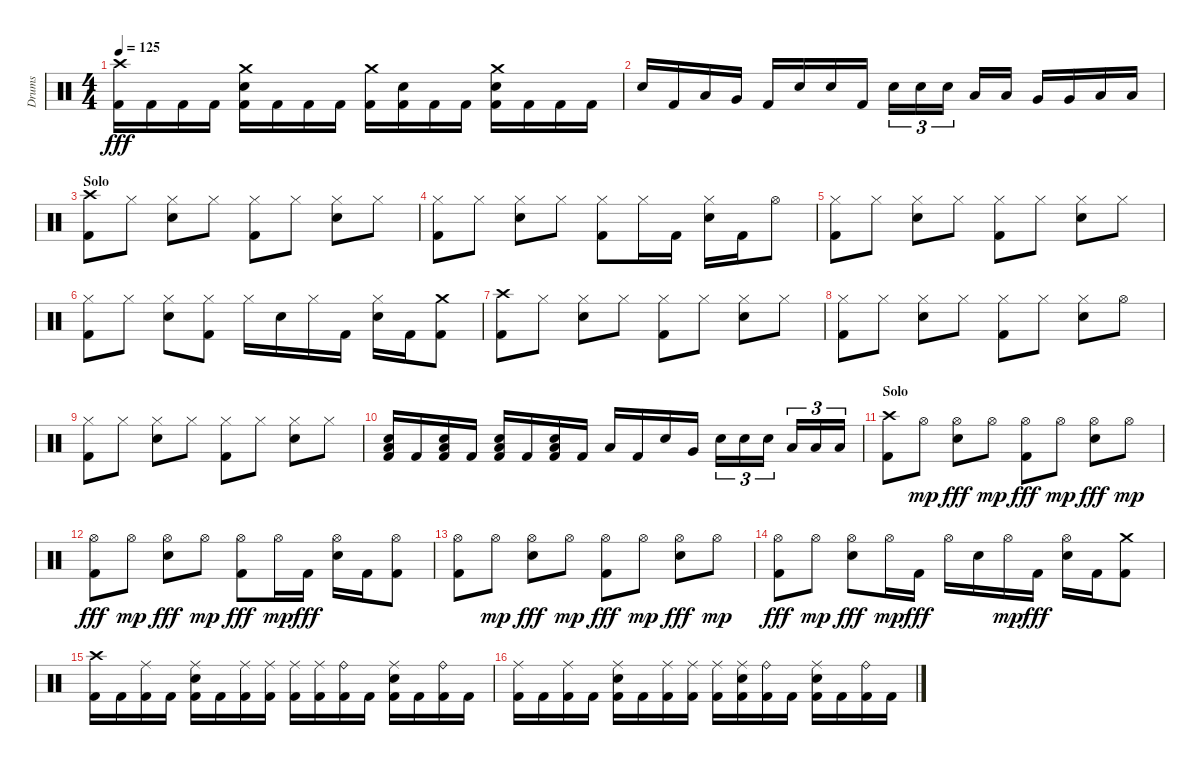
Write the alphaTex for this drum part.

\track ("Drums" "Drums") {instrument percussion}
\staff {score}
\articulation defaults
\ts (4 4)
\tempo 125
\clef neutral
\ks aminor
("Kick (hit) 2" "Crash high (hit)").16{dy fff} "Kick (hit) 2".16 "Kick (hit) 2".16 "Kick (hit) 2".16 ("Kick (hit) 2" "Snare (hit) 2" "Crash medium (hit)").16 "Kick (hit) 2".16 "Kick (hit) 2".16 "Kick (hit) 2".16 ("Kick (hit) 2" "Crash medium (hit)").16 ("Kick (hit) 2" "Snare (hit) 2").16 "Kick (hit) 2".16 "Kick (hit) 2".16 ("Kick (hit) 2" "Snare (hit) 2" "Crash medium (hit)").16 "Kick (hit) 2".16 "Kick (hit) 2".16 "Kick (hit) 2".16 |
"Snare (hit) 2".16 "Kick (hit) 2".16 "Low Tom (hit)".16 "Very Low Tom (hit)".16 "Kick (hit) 2".16 "Snare (hit) 2".16 "Snare (hit) 2".16 "Kick (hit) 2".16 "Snare (hit) 2".16{tu (3 2)} "Snare (hit) 2".16{tu (3 2)} "Snare (hit) 2".16{tu (3 2)} "Low Tom (hit)".16 "Low Tom (hit)".16 "Very Low Tom (hit)".16 "Very Low Tom (hit)".16 "Low Floor Tom (hit)".16 "Low Floor Tom (hit)".16 |
\section ("" "Solo")
("Kick (hit) 2" "Crash high (hit)").8 "Hi-Hat (closed)".8 ("Snare (hit) 2" "Hi-Hat (closed)").8 "Hi-Hat (closed)".8 ("Kick (hit) 2" "Hi-Hat (closed)").8 "Hi-Hat (closed)".8 ("Snare (hit) 2" "Hi-Hat (closed)").8 "Hi-Hat (closed)".8 |
("Kick (hit) 2" "Hi-Hat (closed)").8 "Hi-Hat (closed)".8 ("Snare (hit) 2" "Hi-Hat (closed)").8 "Hi-Hat (closed)".8 ("Kick (hit) 2" "Hi-Hat (closed)").8 "Hi-Hat (closed)".16 "Kick (hit) 2".16 ("Snare (hit) 2" "Hi-Hat (closed)").16 "Kick (hit) 2".16 "Hi-Hat (open)".8 |
("Kick (hit) 2" "Hi-Hat (closed)").8 "Hi-Hat (closed)".8 ("Snare (hit) 2" "Hi-Hat (closed)").8 "Hi-Hat (closed)".8 ("Kick (hit) 2" "Hi-Hat (closed)").8 "Hi-Hat (closed)".8 ("Snare (hit) 2" "Hi-Hat (closed)").8 "Hi-Hat (closed)".8 |
("Kick (hit) 2" "Hi-Hat (closed)").8 "Hi-Hat (closed)".8 ("Snare (hit) 2" "Hi-Hat (closed)").8 ("Kick (hit) 2" "Hi-Hat (closed)").8 "Hi-Hat (closed)".16 "Snare (hit) 2".16 "Hi-Hat (closed)".16 "Kick (hit) 2".16 ("Snare (hit) 2" "Hi-Hat (closed)").16 "Kick (hit) 2".16 ("Kick (hit) 2" "Crash medium (hit)").8 |
("Kick (hit) 2" "Crash high (hit)").8 "Hi-Hat (closed)".8 ("Snare (hit) 2" "Hi-Hat (closed)").8 "Hi-Hat (closed)".8 ("Kick (hit) 2" "Hi-Hat (closed)").8 "Hi-Hat (closed)".8 ("Snare (hit) 2" "Hi-Hat (closed)").8 "Hi-Hat (closed)".8 |
("Kick (hit) 2" "Hi-Hat (closed)").8 "Hi-Hat (closed)".8 ("Snare (hit) 2" "Hi-Hat (closed)").8 "Hi-Hat (closed)".8 ("Kick (hit) 2" "Hi-Hat (closed)").8 "Hi-Hat (closed)".8 ("Snare (hit) 2" "Hi-Hat (closed)").8 "Hi-Hat (open)".8 |
("Kick (hit) 2" "Hi-Hat (closed)").8 "Hi-Hat (closed)".8 ("Snare (hit) 2" "Hi-Hat (closed)").8 "Hi-Hat (closed)".8 ("Kick (hit) 2" "Hi-Hat (closed)").8 "Hi-Hat (closed)".8 ("Snare (hit) 2" "Hi-Hat (closed)").8 "Hi-Hat (closed)".8 |
("Kick (hit) 2" "Snare (hit) 2" "Low Floor Tom (hit)").16 "Kick (hit) 2".16 ("Kick (hit) 2" "Snare (hit) 2" "Low Floor Tom (hit)").16 "Kick (hit) 2".16 ("Kick (hit) 2" "Snare (hit) 2" "Low Floor Tom (hit)").16 "Kick (hit) 2".16 ("Kick (hit) 2" "Snare (hit) 2" "Low Floor Tom (hit)").16 "Kick (hit) 2".16 "Low Tom (hit)".16 "Kick (hit) 2".16 "Snare (hit) 2".16 "Very Low Tom (hit)".16 "Snare (hit) 2".16{tu (3 2)} "Snare (hit) 2".16{tu (3 2)} "Snare (hit) 2".16{tu (3 2)} "Low Floor Tom (hit)".16{tu (3 2)} "Low Floor Tom (hit)".16{tu (3 2)} "Low Floor Tom (hit)".16{tu (3 2)} |
\section ("" "Solo")
("Kick (hit) 2" "Crash high (hit)").8 "Hi-Hat (open)".8{dy mp} ("Snare (hit) 2" "Hi-Hat (open)").8{dy fff} "Hi-Hat (open)".8{dy mp} ("Kick (hit) 2" "Hi-Hat (open)").8{dy fff} "Hi-Hat (open)".8{dy mp} ("Snare (hit) 2" "Hi-Hat (open)").8{dy fff} "Hi-Hat (open)".8{dy mp} |
("Kick (hit) 2" "Hi-Hat (open)").8{dy fff} "Hi-Hat (open)".8{dy mp} ("Snare (hit) 2" "Hi-Hat (open)").8{dy fff} "Hi-Hat (open)".8{dy mp} ("Kick (hit) 2" "Hi-Hat (open)").8{dy fff} "Hi-Hat (open)".16{dy mp} "Kick (hit) 2".16{dy fff} ("Snare (hit) 2" "Hi-Hat (open)").16 "Kick (hit) 2".16 ("Kick (hit) 2" "Hi-Hat (open)").8 |
("Kick (hit) 2" "Hi-Hat (open)").8 "Hi-Hat (open)".8{dy mp} ("Snare (hit) 2" "Hi-Hat (open)").8{dy fff} "Hi-Hat (open)".8{dy mp} ("Kick (hit) 2" "Hi-Hat (open)").8{dy fff} "Hi-Hat (open)".8{dy mp} ("Snare (hit) 2" "Hi-Hat (open)").8{dy fff} "Hi-Hat (open)".8{dy mp} |
("Kick (hit) 2" "Hi-Hat (open)").8{dy fff} "Hi-Hat (open)".8{dy mp} ("Snare (hit) 2" "Hi-Hat (open)").8{dy fff} "Hi-Hat (open)".16{dy mp} "Kick (hit) 2".16{dy fff} "Hi-Hat (open)".16 "Snare (hit) 2".16 "Hi-Hat (open)".16{dy mp} "Kick (hit) 2".16{dy fff} ("Snare (hit) 2" "Hi-Hat (open)").16 "Kick (hit) 2".16 ("Kick (hit) 2" "Crash medium (hit)").8 |
("Kick (hit) 2" "Crash high (hit)").16 "Kick (hit) 2".16 ("Kick (hit) 2" "Ride (middle)").16 "Kick (hit) 2".16 ("Kick (hit) 2" "Snare (hit) 2" "Ride (middle)").16 "Kick (hit) 2".16 ("Kick (hit) 2" "Ride (middle)").16 ("Kick (hit) 2" "Ride (middle)").16 ("Kick (hit) 2" "Ride (middle)").16 ("Kick (hit) 2" "Ride (middle)").16 ("Kick (hit) 2" "Ride (bell)").16 "Kick (hit) 2".16 ("Kick (hit) 2" "Snare (hit) 2" "Ride (middle)").16 "Kick (hit) 2".16 ("Kick (hit) 2" "Ride (bell)").16 "Kick (hit) 2".16 |
("Kick (hit) 2" "Ride (middle)").16 "Kick (hit) 2".16 ("Kick (hit) 2" "Ride (middle)").16 "Kick (hit) 2".16 ("Kick (hit) 2" "Snare (hit) 2" "Ride (middle)").16 "Kick (hit) 2".16 ("Kick (hit) 2" "Ride (middle)").16 ("Kick (hit) 2" "Ride (middle)").16 ("Kick (hit) 2" "Ride (middle)").16 ("Kick (hit) 2" "Snare (hit) 2" "Ride (middle)").16 ("Kick (hit) 2" "Ride (bell)").16 "Kick (hit) 2".16 ("Kick (hit) 2" "Snare (hit) 2" "Ride (middle)").16 "Kick (hit) 2".16 ("Kick (hit) 2" "Ride (bell)").16 "Kick (hit) 2".16
